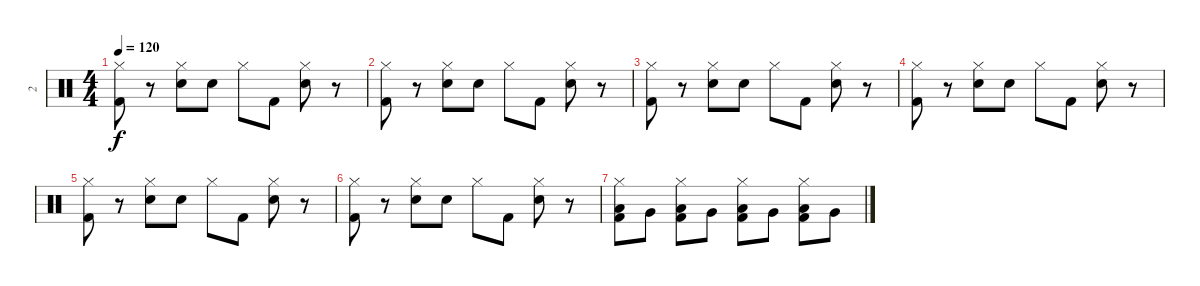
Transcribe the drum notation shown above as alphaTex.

\track ("2" "2") {instrument percussion}
\staff {score}
\articulation defaults
\ts (4 4)
\tempo 120
\clef neutral
\ks c
("Hi-Hat (closed)" "Kick (hit) 2").8{dy f} r.8 ("Hi-Hat (closed)" "Snare (hit) 2").8 "Snare (hit) 2".8 "Hi-Hat (closed)".8 "Kick (hit) 2".8 ("Hi-Hat (closed)" "Snare (hit) 2").8 r.8 |
("Hi-Hat (closed)" "Kick (hit) 2").8 r.8 ("Hi-Hat (closed)" "Snare (hit) 2").8 "Snare (hit) 2".8 "Hi-Hat (closed)".8 "Kick (hit) 2".8 ("Hi-Hat (closed)" "Snare (hit) 2").8 r.8 |
("Hi-Hat (closed)" "Kick (hit) 2").8 r.8 ("Hi-Hat (closed)" "Snare (hit) 2").8 "Snare (hit) 2".8 "Hi-Hat (closed)".8 "Kick (hit) 2".8 ("Hi-Hat (closed)" "Snare (hit) 2").8 r.8 |
("Hi-Hat (closed)" "Kick (hit) 2").8 r.8 ("Hi-Hat (closed)" "Snare (hit) 2").8 "Snare (hit) 2".8 "Hi-Hat (closed)".8 "Kick (hit) 2".8 ("Hi-Hat (closed)" "Snare (hit) 2").8 r.8 |
("Hi-Hat (closed)" "Kick (hit) 2").8 r.8 ("Hi-Hat (closed)" "Snare (hit) 2").8 "Snare (hit) 2".8 "Hi-Hat (closed)".8 "Kick (hit) 2".8 ("Hi-Hat (closed)" "Snare (hit) 2").8 r.8 |
("Hi-Hat (closed)" "Kick (hit) 2").8 r.8 ("Hi-Hat (closed)" "Snare (hit) 2").8 "Snare (hit) 2".8 "Hi-Hat (closed)".8 "Kick (hit) 2".8 ("Hi-Hat (closed)" "Snare (hit) 2").8 r.8 |
("Hi-Hat (closed)" "Low Tom (hit)" "Kick (hit) 2").8 "Very Low Tom (hit)".8 ("Hi-Hat (closed)" "Low Tom (hit)" "Kick (hit) 2").8 "Very Low Tom (hit)".8 ("Hi-Hat (closed)" "Low Tom (hit)" "Kick (hit) 2").8 "Very Low Tom (hit)".8 ("Hi-Hat (closed)" "Low Tom (hit)" "Kick (hit) 2").8 "Very Low Tom (hit)".8
